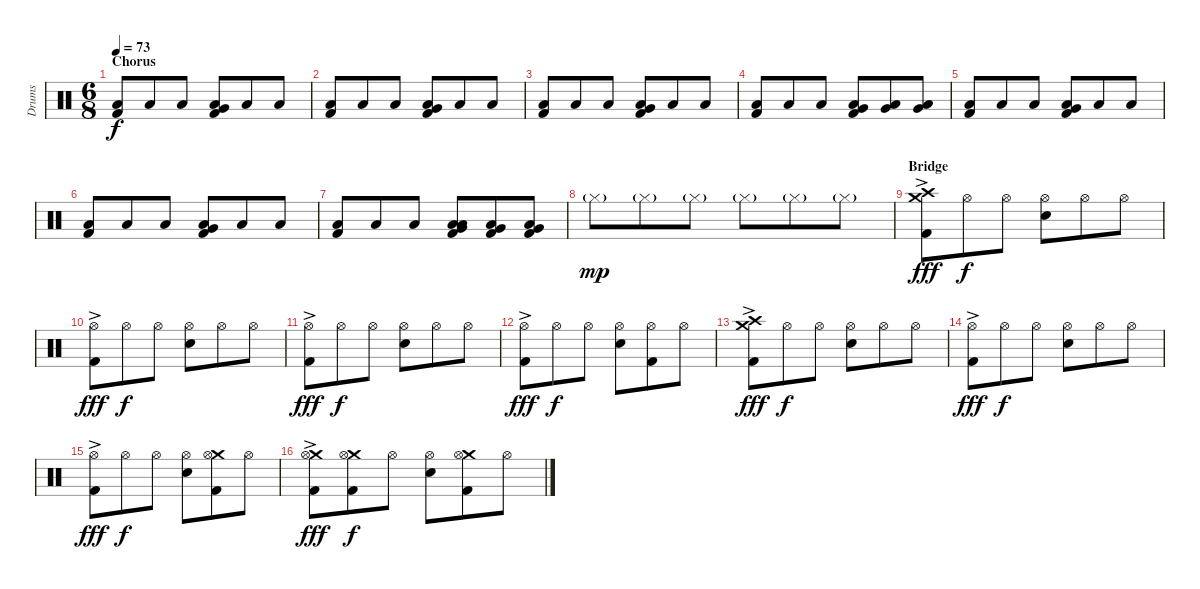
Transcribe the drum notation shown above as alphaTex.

\track ("Drums" "Drums") {instrument percussion}
\staff {score}
\articulation defaults
\ts (6 8)
\section ("" "Chorus")
\tempo 73
\clef neutral
\ks c
("Low Floor Tom (hit)" "Kick (hit) 2").8{dy f} "Low Floor Tom (hit)".8 "Low Floor Tom (hit)".8 ("Low Tom (hit)" "Very Low Tom (hit)" "Kick (hit) 2").8 "Low Floor Tom (hit)".8 "Low Floor Tom (hit)".8 |
("Low Floor Tom (hit)" "Kick (hit) 2").8 "Low Floor Tom (hit)".8 "Low Floor Tom (hit)".8 ("Low Tom (hit)" "Very Low Tom (hit)" "Kick (hit) 2").8 "Low Floor Tom (hit)".8 "Low Floor Tom (hit)".8 |
("Low Floor Tom (hit)" "Kick (hit) 2").8 "Low Floor Tom (hit)".8 "Low Floor Tom (hit)".8 ("Low Tom (hit)" "Very Low Tom (hit)" "Kick (hit) 2").8 "Low Floor Tom (hit)".8 "Low Floor Tom (hit)".8 |
("Low Floor Tom (hit)" "Kick (hit) 2").8 "Low Floor Tom (hit)".8 "Low Floor Tom (hit)".8 ("Low Tom (hit)" "Very Low Tom (hit)" "Kick (hit) 2").8 ("Very Low Tom (hit)" "Low Floor Tom (hit)").8 ("Very Low Tom (hit)" "Low Floor Tom (hit)").8 |
("Low Floor Tom (hit)" "Kick (hit) 2").8 "Low Floor Tom (hit)".8 "Low Floor Tom (hit)".8 ("Low Tom (hit)" "Very Low Tom (hit)" "Kick (hit) 2").8 "Low Floor Tom (hit)".8 "Low Floor Tom (hit)".8 |
("Low Floor Tom (hit)" "Kick (hit) 2").8 "Low Floor Tom (hit)".8 "Low Floor Tom (hit)".8 ("Low Tom (hit)" "Very Low Tom (hit)" "Kick (hit) 2").8 "Low Floor Tom (hit)".8 "Low Floor Tom (hit)".8 |
("Low Floor Tom (hit)" "Kick (hit) 2").8 "Low Floor Tom (hit)".8 "Low Floor Tom (hit)".8 ("Low Tom (hit)" "Very Low Tom (hit)" "Low Floor Tom (hit)" "Kick (hit) 2").8 ("Very Low Tom (hit)" "Low Floor Tom (hit)" "Kick (hit) 2").8 ("Very Low Tom (hit)" "Low Floor Tom (hit)" "Kick (hit) 2").8 |
"Hi-Hat (closed)"{g}.8{dy mp} "Hi-Hat (closed)"{g}.8 "Hi-Hat (closed)"{g}.8 "Hi-Hat (closed)"{g}.8 "Hi-Hat (closed)"{g}.8 "Hi-Hat (closed)"{g}.8 |
\section ("" "Bridge")
("Crash high (hit)" "Crash medium (hit)" "Kick (hit) 2"{ac}).8{dy fff} "Hi-Hat (open)".8{dy f} "Hi-Hat (open)".8 ("Hi-Hat (open)" "Electric Snare (hit)").8 "Hi-Hat (open)".8 "Hi-Hat (open)".8 |
("Hi-Hat (open)" "Kick (hit) 2"{ac}).8{dy fff} "Hi-Hat (open)".8{dy f} "Hi-Hat (open)".8 ("Hi-Hat (open)" "Electric Snare (hit)").8 "Hi-Hat (open)".8 "Hi-Hat (open)".8 |
("Hi-Hat (open)" "Kick (hit) 2"{ac}).8{dy fff} "Hi-Hat (open)".8{dy f} "Hi-Hat (open)".8 ("Hi-Hat (open)" "Electric Snare (hit)").8 "Hi-Hat (open)".8 "Hi-Hat (open)".8 |
("Hi-Hat (open)" "Kick (hit) 2"{ac}).8{dy fff} "Hi-Hat (open)".8{dy f} "Hi-Hat (open)".8 ("Hi-Hat (open)" "Electric Snare (hit)").8 ("Hi-Hat (open)" "Kick (hit) 2").8 "Hi-Hat (open)".8 |
("Crash high (hit)" "Crash medium (hit)" "Kick (hit) 2"{ac}).8{dy fff} "Hi-Hat (open)".8{dy f} "Hi-Hat (open)".8 ("Hi-Hat (open)" "Electric Snare (hit)").8 "Hi-Hat (open)".8 "Hi-Hat (open)".8 |
("Hi-Hat (open)" "Kick (hit) 2"{ac}).8{dy fff} "Hi-Hat (open)".8{dy f} "Hi-Hat (open)".8 ("Hi-Hat (open)" "Electric Snare (hit)").8 "Hi-Hat (open)".8 "Hi-Hat (open)".8 |
("Hi-Hat (open)" "Kick (hit) 2"{ac}).8{dy fff} "Hi-Hat (open)".8{dy f} "Hi-Hat (open)".8 ("Hi-Hat (open)" "Electric Snare (hit)").8 ("Crash medium (hit)" "Hi-Hat (open)" "Kick (hit) 2").8 "Hi-Hat (open)".8 |
("Crash medium (hit)" "Hi-Hat (open)" "Kick (hit) 2"{ac}).8{dy fff} ("Crash medium (hit)" "Hi-Hat (open)" "Kick (hit) 2").8{dy f} "Hi-Hat (open)".8 ("Hi-Hat (open)" "Electric Snare (hit)").8 ("Crash medium (hit)" "Hi-Hat (open)" "Kick (hit) 2").8 "Hi-Hat (open)".8
